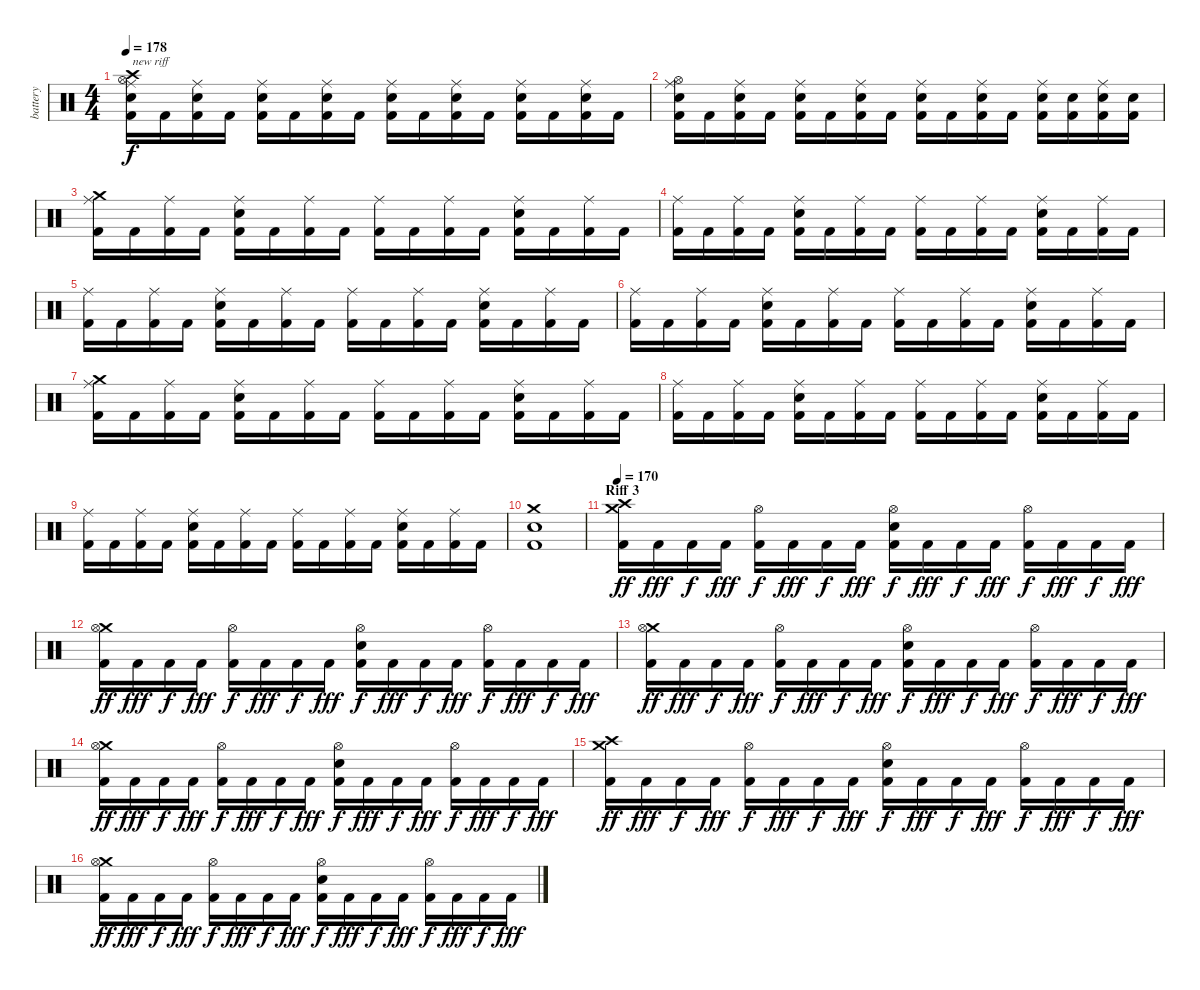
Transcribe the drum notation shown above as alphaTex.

\track ("battery" "battery") {instrument percussion}
\staff {score}
\articulation defaults
\ts (4 4)
\tempo 178
\clef neutral
\ks c
("Kick (hit) 2" "Electric Snare (hit)" "Hi-Hat (open)" "Crash high (hit)" "Ride (middle)").16{txt "new riff" dy f} "Kick (hit) 2".16 ("Kick (hit) 2" "Electric Snare (hit)" "Ride (middle)").16 "Kick (hit) 2".16 ("Kick (hit) 2" "Electric Snare (hit)" "Ride (middle)").16 "Kick (hit) 2".16 ("Kick (hit) 2" "Electric Snare (hit)" "Ride (middle)").16 "Kick (hit) 2".16 ("Kick (hit) 2" "Electric Snare (hit)" "Ride (middle)").16 "Kick (hit) 2".16 ("Kick (hit) 2" "Electric Snare (hit)" "Ride (middle)").16 "Kick (hit) 2".16 ("Kick (hit) 2" "Electric Snare (hit)" "Ride (middle)").16 "Kick (hit) 2".16 ("Kick (hit) 2" "Electric Snare (hit)" "Ride (middle)").16 "Kick (hit) 2".16 |
("Kick (hit) 2" "Electric Snare (hit)" "Hi-Hat (open)" "Ride (middle)").16 "Kick (hit) 2".16 ("Kick (hit) 2" "Electric Snare (hit)" "Ride (middle)").16 "Kick (hit) 2".16 ("Kick (hit) 2" "Electric Snare (hit)" "Ride (middle)").16 "Kick (hit) 2".16 ("Kick (hit) 2" "Electric Snare (hit)" "Ride (middle)").16 "Kick (hit) 2".16 ("Kick (hit) 2" "Electric Snare (hit)" "Ride (middle)").16 "Kick (hit) 2".16 ("Kick (hit) 2" "Electric Snare (hit)" "Ride (middle)").16 "Kick (hit) 2".16 ("Kick (hit) 2" "Electric Snare (hit)" "Ride (middle)").16 ("Kick (hit) 2" "Electric Snare (hit)").16 ("Kick (hit) 2" "Electric Snare (hit)" "Ride (middle)").16 ("Kick (hit) 2" "Electric Snare (hit)").16 |
("Kick (hit) 2" "Crash medium (hit)" "Ride (middle)").16 "Kick (hit) 2".16 ("Kick (hit) 2" "Ride (middle)").16 "Kick (hit) 2".16 ("Kick (hit) 2" "Electric Snare (hit)" "Ride (middle)").16 "Kick (hit) 2".16 ("Kick (hit) 2" "Ride (middle)").16 "Kick (hit) 2".16 ("Kick (hit) 2" "Ride (middle)").16 "Kick (hit) 2".16 ("Kick (hit) 2" "Ride (middle)").16 "Kick (hit) 2".16 ("Kick (hit) 2" "Electric Snare (hit)" "Ride (middle)").16 "Kick (hit) 2".16 ("Kick (hit) 2" "Ride (middle)").16 "Kick (hit) 2".16 |
("Kick (hit) 2" "Ride (middle)").16 "Kick (hit) 2".16 ("Kick (hit) 2" "Ride (middle)").16 "Kick (hit) 2".16 ("Kick (hit) 2" "Electric Snare (hit)" "Ride (middle)").16 "Kick (hit) 2".16 ("Kick (hit) 2" "Ride (middle)").16 "Kick (hit) 2".16 ("Kick (hit) 2" "Ride (middle)").16 "Kick (hit) 2".16 ("Kick (hit) 2" "Ride (middle)").16 "Kick (hit) 2".16 ("Kick (hit) 2" "Electric Snare (hit)" "Ride (middle)").16 "Kick (hit) 2".16 ("Kick (hit) 2" "Ride (middle)").16 "Kick (hit) 2".16 |
("Kick (hit) 2" "Ride (middle)").16 "Kick (hit) 2".16 ("Kick (hit) 2" "Ride (middle)").16 "Kick (hit) 2".16 ("Kick (hit) 2" "Electric Snare (hit)" "Ride (middle)").16 "Kick (hit) 2".16 ("Kick (hit) 2" "Ride (middle)").16 "Kick (hit) 2".16 ("Kick (hit) 2" "Ride (middle)").16 "Kick (hit) 2".16 ("Kick (hit) 2" "Ride (middle)").16 "Kick (hit) 2".16 ("Kick (hit) 2" "Electric Snare (hit)" "Ride (middle)").16 "Kick (hit) 2".16 ("Kick (hit) 2" "Ride (middle)").16 "Kick (hit) 2".16 |
("Kick (hit) 2" "Ride (middle)").16 "Kick (hit) 2".16 ("Kick (hit) 2" "Ride (middle)").16 "Kick (hit) 2".16 ("Kick (hit) 2" "Electric Snare (hit)" "Ride (middle)").16 "Kick (hit) 2".16 ("Kick (hit) 2" "Ride (middle)").16 "Kick (hit) 2".16 ("Kick (hit) 2" "Ride (middle)").16 "Kick (hit) 2".16 ("Kick (hit) 2" "Ride (middle)").16 "Kick (hit) 2".16 ("Kick (hit) 2" "Electric Snare (hit)" "Ride (middle)").16 "Kick (hit) 2".16 ("Kick (hit) 2" "Ride (middle)").16 "Kick (hit) 2".16 |
("Kick (hit) 2" "Crash medium (hit)" "Ride (middle)").16 "Kick (hit) 2".16 ("Kick (hit) 2" "Ride (middle)").16 "Kick (hit) 2".16 ("Kick (hit) 2" "Electric Snare (hit)" "Ride (middle)").16 "Kick (hit) 2".16 ("Kick (hit) 2" "Ride (middle)").16 "Kick (hit) 2".16 ("Kick (hit) 2" "Ride (middle)").16 "Kick (hit) 2".16 ("Kick (hit) 2" "Ride (middle)").16 "Kick (hit) 2".16 ("Kick (hit) 2" "Electric Snare (hit)" "Ride (middle)").16 "Kick (hit) 2".16 ("Kick (hit) 2" "Ride (middle)").16 "Kick (hit) 2".16 |
("Kick (hit) 2" "Ride (middle)").16 "Kick (hit) 2".16 ("Kick (hit) 2" "Ride (middle)").16 "Kick (hit) 2".16 ("Kick (hit) 2" "Electric Snare (hit)" "Ride (middle)").16 "Kick (hit) 2".16 ("Kick (hit) 2" "Ride (middle)").16 "Kick (hit) 2".16 ("Kick (hit) 2" "Ride (middle)").16 "Kick (hit) 2".16 ("Kick (hit) 2" "Ride (middle)").16 "Kick (hit) 2".16 ("Kick (hit) 2" "Electric Snare (hit)" "Ride (middle)").16 "Kick (hit) 2".16 ("Kick (hit) 2" "Ride (middle)").16 "Kick (hit) 2".16 |
("Kick (hit) 2" "Ride (middle)").16 "Kick (hit) 2".16 ("Kick (hit) 2" "Ride (middle)").16 "Kick (hit) 2".16 ("Kick (hit) 2" "Electric Snare (hit)" "Ride (middle)").16 "Kick (hit) 2".16 ("Kick (hit) 2" "Ride (middle)").16 "Kick (hit) 2".16 ("Kick (hit) 2" "Ride (middle)").16 "Kick (hit) 2".16 ("Kick (hit) 2" "Ride (middle)").16 "Kick (hit) 2".16 ("Kick (hit) 2" "Electric Snare (hit)" "Ride (middle)").16 "Kick (hit) 2".16 ("Kick (hit) 2" "Ride (middle)").16 "Kick (hit) 2".16 |
("Electric Snare (hit)" "Crash medium (hit)" "Kick (hit) 2").1 |
\section ("" "Riff 3")
\tempo 170
("Kick (hit) 2" "Crash medium (hit)" "Crash high (hit)").16{dy ff} "Kick (hit) 2".16{dy fff} "Kick (hit) 2".16{dy f} "Kick (hit) 2".16{dy fff} ("Kick (hit) 2" "Hi-Hat (open)").16{dy f} "Kick (hit) 2".16{dy fff} "Kick (hit) 2".16{dy f} "Kick (hit) 2".16{dy fff} ("Kick (hit) 2" "Electric Snare (hit)" "Hi-Hat (open)").16{dy f} "Kick (hit) 2".16{dy fff} "Kick (hit) 2".16{dy f} "Kick (hit) 2".16{dy fff} ("Kick (hit) 2" "Hi-Hat (open)").16{dy f} "Kick (hit) 2".16{dy fff} "Kick (hit) 2".16{dy f} "Kick (hit) 2".16{dy fff} |
("Kick (hit) 2" "Crash medium (hit)" "Hi-Hat (open)").16{dy ff} "Kick (hit) 2".16{dy fff} "Kick (hit) 2".16{dy f} "Kick (hit) 2".16{dy fff} ("Kick (hit) 2" "Hi-Hat (open)").16{dy f} "Kick (hit) 2".16{dy fff} "Kick (hit) 2".16{dy f} "Kick (hit) 2".16{dy fff} ("Kick (hit) 2" "Electric Snare (hit)" "Hi-Hat (open)").16{dy f} "Kick (hit) 2".16{dy fff} "Kick (hit) 2".16{dy f} "Kick (hit) 2".16{dy fff} ("Kick (hit) 2" "Hi-Hat (open)").16{dy f} "Kick (hit) 2".16{dy fff} "Kick (hit) 2".16{dy f} "Kick (hit) 2".16{dy fff} |
("Kick (hit) 2" "Crash medium (hit)" "Hi-Hat (open)").16{dy ff} "Kick (hit) 2".16{dy fff} "Kick (hit) 2".16{dy f} "Kick (hit) 2".16{dy fff} ("Kick (hit) 2" "Hi-Hat (open)").16{dy f} "Kick (hit) 2".16{dy fff} "Kick (hit) 2".16{dy f} "Kick (hit) 2".16{dy fff} ("Kick (hit) 2" "Electric Snare (hit)" "Hi-Hat (open)").16{dy f} "Kick (hit) 2".16{dy fff} "Kick (hit) 2".16{dy f} "Kick (hit) 2".16{dy fff} ("Kick (hit) 2" "Hi-Hat (open)").16{dy f} "Kick (hit) 2".16{dy fff} "Kick (hit) 2".16{dy f} "Kick (hit) 2".16{dy fff} |
("Kick (hit) 2" "Crash medium (hit)" "Hi-Hat (open)").16{dy ff} "Kick (hit) 2".16{dy fff} "Kick (hit) 2".16{dy f} "Kick (hit) 2".16{dy fff} ("Kick (hit) 2" "Hi-Hat (open)").16{dy f} "Kick (hit) 2".16{dy fff} "Kick (hit) 2".16{dy f} "Kick (hit) 2".16{dy fff} ("Kick (hit) 2" "Electric Snare (hit)" "Hi-Hat (open)").16{dy f} "Kick (hit) 2".16{dy fff} "Kick (hit) 2".16{dy f} "Kick (hit) 2".16{dy fff} ("Kick (hit) 2" "Hi-Hat (open)").16{dy f} "Kick (hit) 2".16{dy fff} "Kick (hit) 2".16{dy f} "Kick (hit) 2".16{dy fff} |
("Kick (hit) 2" "Crash medium (hit)" "Crash high (hit)").16{dy ff} "Kick (hit) 2".16{dy fff} "Kick (hit) 2".16{dy f} "Kick (hit) 2".16{dy fff} ("Kick (hit) 2" "Hi-Hat (open)").16{dy f} "Kick (hit) 2".16{dy fff} "Kick (hit) 2".16{dy f} "Kick (hit) 2".16{dy fff} ("Kick (hit) 2" "Electric Snare (hit)" "Hi-Hat (open)").16{dy f} "Kick (hit) 2".16{dy fff} "Kick (hit) 2".16{dy f} "Kick (hit) 2".16{dy fff} ("Kick (hit) 2" "Hi-Hat (open)").16{dy f} "Kick (hit) 2".16{dy fff} "Kick (hit) 2".16{dy f} "Kick (hit) 2".16{dy fff} |
("Kick (hit) 2" "Crash medium (hit)" "Hi-Hat (open)").16{dy ff} "Kick (hit) 2".16{dy fff} "Kick (hit) 2".16{dy f} "Kick (hit) 2".16{dy fff} ("Kick (hit) 2" "Hi-Hat (open)").16{dy f} "Kick (hit) 2".16{dy fff} "Kick (hit) 2".16{dy f} "Kick (hit) 2".16{dy fff} ("Kick (hit) 2" "Electric Snare (hit)" "Hi-Hat (open)").16{dy f} "Kick (hit) 2".16{dy fff} "Kick (hit) 2".16{dy f} "Kick (hit) 2".16{dy fff} ("Kick (hit) 2" "Hi-Hat (open)").16{dy f} "Kick (hit) 2".16{dy fff} "Kick (hit) 2".16{dy f} "Kick (hit) 2".16{dy fff}
